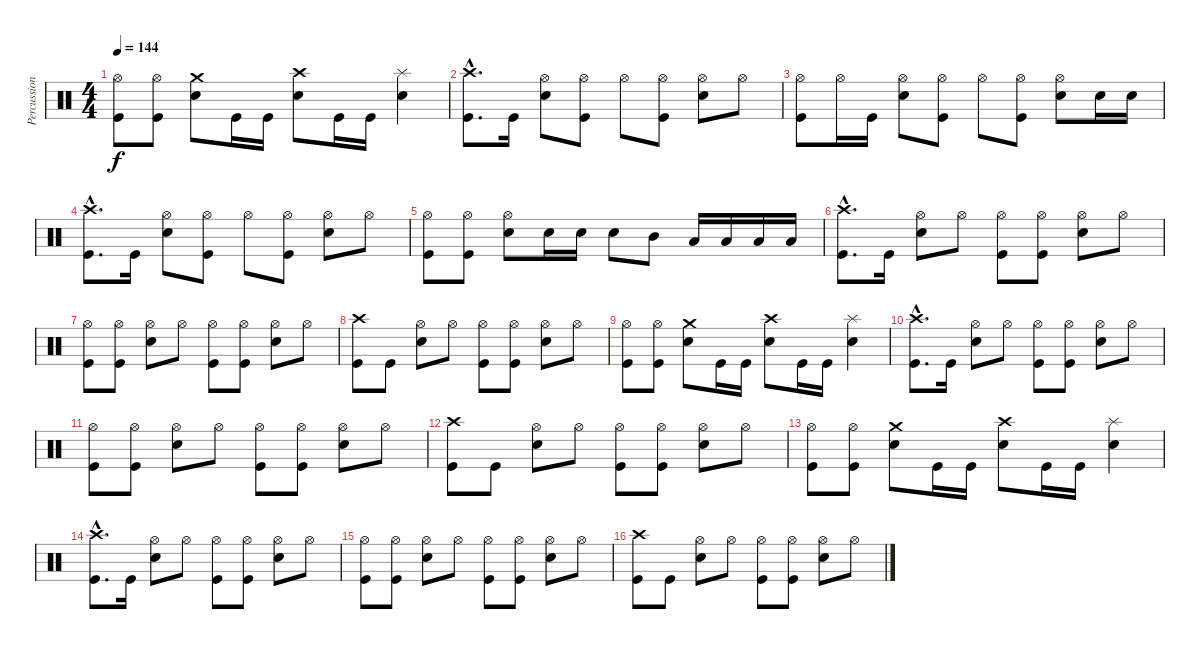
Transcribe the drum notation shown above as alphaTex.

\track ("Percussions" "Percussion") {instrument percussion}
\staff {score}
\articulation defaults
\ts (4 4)
\tempo 144
\clef neutral
\ks c
("Kick (hit)" "Hi-Hat (open)").8{dy f} ("Kick (hit)" "Hi-Hat (open)").8 ("Electric Snare (hit)" "Crash medium (hit)").8 "Kick (hit)".16 "Kick (hit)".16 ("Electric Snare (hit)" "Crash high (hit)").8 "Kick (hit)".16 "Kick (hit)".16 ("Electric Snare (hit)" "Splash (hit)").4 |
("Kick (hit)"{hac} "Crash high (hit)"{hac}).8{d} "Kick (hit)".16 ("Electric Snare (hit)" "Hi-Hat (open)").8 ("Kick (hit)" "Hi-Hat (open)").8 "Hi-Hat (open)".8 ("Kick (hit)" "Hi-Hat (open)").8 ("Electric Snare (hit)" "Hi-Hat (open)").8 "Hi-Hat (open)".8 |
("Kick (hit)" "Hi-Hat (open)").8 "Hi-Hat (open)".16 "Kick (hit)".16 ("Electric Snare (hit)" "Hi-Hat (open)").8 ("Kick (hit)" "Hi-Hat (open)").8 "Hi-Hat (open)".8 ("Kick (hit)" "Hi-Hat (open)").8 ("Electric Snare (hit)" "Hi-Hat (open)").8 "Electric Snare (hit)".16 "Electric Snare (hit)".16 |
("Kick (hit)"{hac} "Crash high (hit)"{hac}).8{d} "Kick (hit)".16 ("Electric Snare (hit)" "Hi-Hat (open)").8 ("Kick (hit)" "Hi-Hat (open)").8 "Hi-Hat (open)".8 ("Kick (hit)" "Hi-Hat (open)").8 ("Electric Snare (hit)" "Hi-Hat (open)").8 "Hi-Hat (open)".8 |
("Kick (hit)" "Hi-Hat (open)").8 ("Kick (hit)" "Hi-Hat (open)").8 ("Electric Snare (hit)" "Hi-Hat (open)").8 "Electric Snare (hit)".16 "Electric Snare (hit)".16 "Electric Snare (hit)".8 "Mid Tom (hit)".8 "Low Tom (hit)".16 "Low Tom (hit)".16 "Low Tom (hit)".16 "Low Tom (hit)".16 |
("Kick (hit)"{hac} "Crash high (hit)"{hac}).8{d} "Kick (hit)".16 ("Electric Snare (hit)" "Hi-Hat (open)").8 "Hi-Hat (open)".8 ("Kick (hit)" "Hi-Hat (open)").8 ("Kick (hit)" "Hi-Hat (open)").8 ("Electric Snare (hit)" "Hi-Hat (open)").8 "Hi-Hat (open)".8 |
("Kick (hit)" "Hi-Hat (open)").8 ("Kick (hit)" "Hi-Hat (open)").8 ("Electric Snare (hit)" "Hi-Hat (open)").8 "Hi-Hat (open)".8 ("Kick (hit)" "Hi-Hat (open)").8 ("Kick (hit)" "Hi-Hat (open)").8 ("Electric Snare (hit)" "Hi-Hat (open)").8 "Hi-Hat (open)".8 |
("Kick (hit)" "Crash high (hit)").8 "Kick (hit)".8 ("Electric Snare (hit)" "Hi-Hat (open)").8 "Hi-Hat (open)".8 ("Kick (hit)" "Hi-Hat (open)").8 ("Kick (hit)" "Hi-Hat (open)").8 ("Electric Snare (hit)" "Hi-Hat (open)").8 "Hi-Hat (open)".8 |
("Kick (hit)" "Hi-Hat (open)").8 ("Kick (hit)" "Hi-Hat (open)").8 ("Electric Snare (hit)" "Crash medium (hit)").8 "Kick (hit)".16 "Kick (hit)".16 ("Electric Snare (hit)" "Crash high (hit)").8 "Kick (hit)".16 "Kick (hit)".16 ("Electric Snare (hit)" "Splash (hit)").4 |
("Kick (hit)"{hac} "Crash high (hit)"{hac}).8{d} "Kick (hit)".16 ("Electric Snare (hit)" "Hi-Hat (open)").8 "Hi-Hat (open)".8 ("Kick (hit)" "Hi-Hat (open)").8 ("Kick (hit)" "Hi-Hat (open)").8 ("Electric Snare (hit)" "Hi-Hat (open)").8 "Hi-Hat (open)".8 |
("Kick (hit)" "Hi-Hat (open)").8 ("Kick (hit)" "Hi-Hat (open)").8 ("Electric Snare (hit)" "Hi-Hat (open)").8 "Hi-Hat (open)".8 ("Kick (hit)" "Hi-Hat (open)").8 ("Kick (hit)" "Hi-Hat (open)").8 ("Electric Snare (hit)" "Hi-Hat (open)").8 "Hi-Hat (open)".8 |
("Kick (hit)" "Crash high (hit)").8 "Kick (hit)".8 ("Electric Snare (hit)" "Hi-Hat (open)").8 "Hi-Hat (open)".8 ("Kick (hit)" "Hi-Hat (open)").8 ("Kick (hit)" "Hi-Hat (open)").8 ("Electric Snare (hit)" "Hi-Hat (open)").8 "Hi-Hat (open)".8 |
("Kick (hit)" "Hi-Hat (open)").8 ("Kick (hit)" "Hi-Hat (open)").8 ("Electric Snare (hit)" "Crash medium (hit)").8 "Kick (hit)".16 "Kick (hit)".16 ("Electric Snare (hit)" "Crash high (hit)").8 "Kick (hit)".16 "Kick (hit)".16 ("Electric Snare (hit)" "Splash (hit)").4 |
("Kick (hit)"{hac} "Crash high (hit)"{hac}).8{d} "Kick (hit)".16 ("Electric Snare (hit)" "Hi-Hat (open)").8 "Hi-Hat (open)".8 ("Kick (hit)" "Hi-Hat (open)").8 ("Kick (hit)" "Hi-Hat (open)").8 ("Electric Snare (hit)" "Hi-Hat (open)").8 "Hi-Hat (open)".8 |
("Kick (hit)" "Hi-Hat (open)").8 ("Kick (hit)" "Hi-Hat (open)").8 ("Electric Snare (hit)" "Hi-Hat (open)").8 "Hi-Hat (open)".8 ("Kick (hit)" "Hi-Hat (open)").8 ("Kick (hit)" "Hi-Hat (open)").8 ("Electric Snare (hit)" "Hi-Hat (open)").8 "Hi-Hat (open)".8 |
("Kick (hit)" "Crash high (hit)").8 "Kick (hit)".8 ("Electric Snare (hit)" "Hi-Hat (open)").8 "Hi-Hat (open)".8 ("Kick (hit)" "Hi-Hat (open)").8 ("Kick (hit)" "Hi-Hat (open)").8 ("Electric Snare (hit)" "Hi-Hat (open)").8 "Hi-Hat (open)".8
